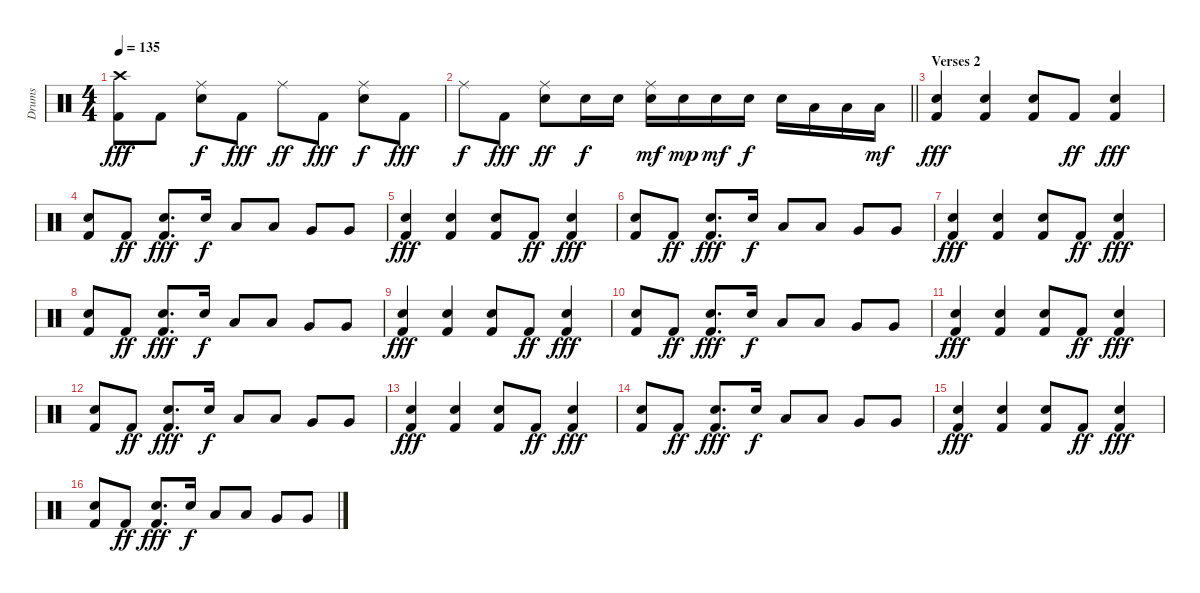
\track ("Drums" "Drums") {instrument percussion}
\staff {score}
\articulation defaults
\ts (4 4)
\tempo 135
\clef neutral
\ks c
("Crash high (hit)" "Kick (hit) 2").8{dy fff} "Kick (hit) 2".8 ("Ride (middle)" "Electric Snare (hit)").8{dy f} "Kick (hit) 2".8{dy fff} "Ride (middle)".8{dy ff} "Kick (hit) 2".8{dy fff} ("Ride (middle)" "Electric Snare (hit)").8{dy f} "Kick (hit) 2".8{dy fff} |
\barLineRight lightlight "Ride (middle)".8{dy f} "Kick (hit) 2".8{dy fff}
("Ride (middle)" "Electric Snare (hit)").8{dy ff} "Electric Snare (hit)".16{dy f} "Electric Snare (hit)".16 ("Ride (middle)" "Electric Snare (hit)").16{dy mf} "Electric Snare (hit)".16{dy mp} "Electric Snare (hit)".16{dy mf} "Electric Snare (hit)".16{dy f} "Electric Snare (hit)".16 "Low Tom (hit)".16 "Low Tom (hit)".16 "Low Tom (hit)".16{dy mf} |
\section ("" "Verses 2")
("Electric Snare (hit)" "Kick (hit) 2").4{dy fff} ("Electric Snare (hit)" "Kick (hit) 2").4 ("Electric Snare (hit)" "Kick (hit) 2").8 "Kick (hit) 2".8{dy ff} ("Electric Snare (hit)" "Kick (hit) 2").4{dy fff} |
("Electric Snare (hit)" "Kick (hit) 2").8 "Kick (hit) 2".8{dy ff} ("Electric Snare (hit)" "Kick (hit) 2").8{d dy fff} "Electric Snare (hit)".16{dy f} "Low Tom (hit)".8 "Low Tom (hit)".8 "Very Low Tom (hit)".8 "Very Low Tom (hit)".8 |
("Electric Snare (hit)" "Kick (hit) 2").4{dy fff} ("Electric Snare (hit)" "Kick (hit) 2").4 ("Electric Snare (hit)" "Kick (hit) 2").8 "Kick (hit) 2".8{dy ff} ("Electric Snare (hit)" "Kick (hit) 2").4{dy fff} |
("Electric Snare (hit)" "Kick (hit) 2").8 "Kick (hit) 2".8{dy ff} ("Electric Snare (hit)" "Kick (hit) 2").8{d dy fff} "Electric Snare (hit)".16{dy f} "Low Tom (hit)".8 "Low Tom (hit)".8 "Very Low Tom (hit)".8 "Very Low Tom (hit)".8 |
("Electric Snare (hit)" "Kick (hit) 2").4{dy fff} ("Electric Snare (hit)" "Kick (hit) 2").4 ("Electric Snare (hit)" "Kick (hit) 2").8 "Kick (hit) 2".8{dy ff} ("Electric Snare (hit)" "Kick (hit) 2").4{dy fff} |
("Electric Snare (hit)" "Kick (hit) 2").8 "Kick (hit) 2".8{dy ff} ("Electric Snare (hit)" "Kick (hit) 2").8{d dy fff} "Electric Snare (hit)".16{dy f} "Low Tom (hit)".8 "Low Tom (hit)".8 "Very Low Tom (hit)".8 "Very Low Tom (hit)".8 |
("Electric Snare (hit)" "Kick (hit) 2").4{dy fff} ("Electric Snare (hit)" "Kick (hit) 2").4 ("Electric Snare (hit)" "Kick (hit) 2").8 "Kick (hit) 2".8{dy ff} ("Electric Snare (hit)" "Kick (hit) 2").4{dy fff} |
("Electric Snare (hit)" "Kick (hit) 2").8 "Kick (hit) 2".8{dy ff} ("Electric Snare (hit)" "Kick (hit) 2").8{d dy fff} "Electric Snare (hit)".16{dy f} "Low Tom (hit)".8 "Low Tom (hit)".8 "Very Low Tom (hit)".8 "Very Low Tom (hit)".8 |
("Electric Snare (hit)" "Kick (hit) 2").4{dy fff} ("Electric Snare (hit)" "Kick (hit) 2").4 ("Electric Snare (hit)" "Kick (hit) 2").8 "Kick (hit) 2".8{dy ff} ("Electric Snare (hit)" "Kick (hit) 2").4{dy fff} |
("Electric Snare (hit)" "Kick (hit) 2").8 "Kick (hit) 2".8{dy ff} ("Electric Snare (hit)" "Kick (hit) 2").8{d dy fff} "Electric Snare (hit)".16{dy f} "Low Tom (hit)".8 "Low Tom (hit)".8 "Very Low Tom (hit)".8 "Very Low Tom (hit)".8 |
("Electric Snare (hit)" "Kick (hit) 2").4{dy fff} ("Electric Snare (hit)" "Kick (hit) 2").4 ("Electric Snare (hit)" "Kick (hit) 2").8 "Kick (hit) 2".8{dy ff} ("Electric Snare (hit)" "Kick (hit) 2").4{dy fff} |
("Electric Snare (hit)" "Kick (hit) 2").8 "Kick (hit) 2".8{dy ff} ("Electric Snare (hit)" "Kick (hit) 2").8{d dy fff} "Electric Snare (hit)".16{dy f} "Low Tom (hit)".8 "Low Tom (hit)".8 "Very Low Tom (hit)".8 "Very Low Tom (hit)".8 |
("Electric Snare (hit)" "Kick (hit) 2").4{dy fff} ("Electric Snare (hit)" "Kick (hit) 2").4 ("Electric Snare (hit)" "Kick (hit) 2").8 "Kick (hit) 2".8{dy ff} ("Electric Snare (hit)" "Kick (hit) 2").4{dy fff} |
("Electric Snare (hit)" "Kick (hit) 2").8 "Kick (hit) 2".8{dy ff} ("Electric Snare (hit)" "Kick (hit) 2").8{d dy fff} "Electric Snare (hit)".16{dy f} "Low Tom (hit)".8 "Low Tom (hit)".8 "Very Low Tom (hit)".8 "Very Low Tom (hit)".8
